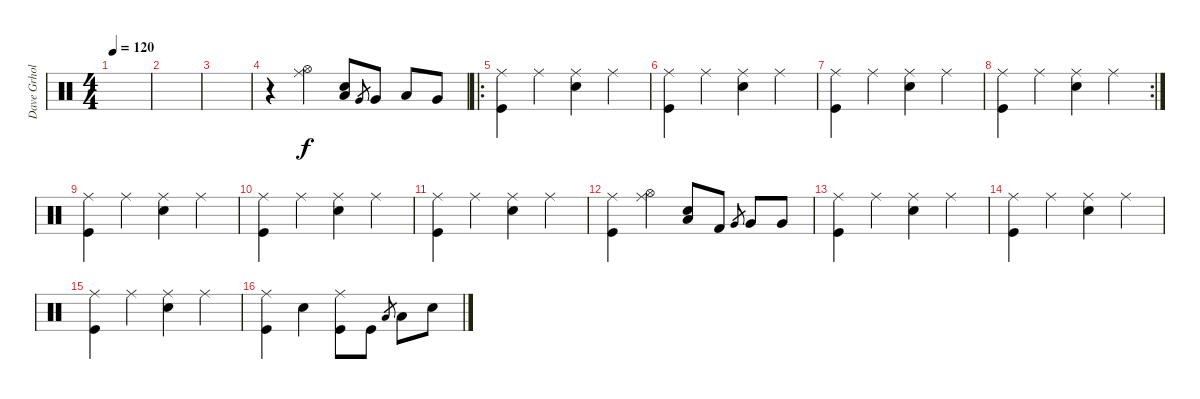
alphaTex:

\track ("Dave Grhol" "Dave Grhol") {instrument percussion}
\staff {score}
\articulation defaults
\ts (4 4)
\tempo 120
\clef neutral
\ks c
|
|
|
r.4 ("Hi-Hat (open)" "Ride (middle)").4 ("Low Tom (hit)" "Snare (hit) 2").8 "Very Low Tom (hit)".8{gr} "Very Low Tom (hit)".8 "Low Tom (hit)".8 "Very Low Tom (hit)".8 |
\ro
("Ride (middle)" "Kick (hit)").4 "Ride (middle)".4 ("Ride (middle)" "Snare (hit) 2").4 "Ride (middle)".4 |
("Ride (middle)" "Kick (hit)").4 "Ride (middle)".4 ("Ride (middle)" "Snare (hit) 2").4 "Ride (middle)".4 |
("Ride (middle)" "Kick (hit)").4 "Ride (middle)".4 ("Ride (middle)" "Snare (hit) 2").4 "Ride (middle)".4 |
\rc 2
("Ride (middle)" "Kick (hit)").4 "Ride (middle)".4 ("Ride (middle)" "Snare (hit) 2").4 "Ride (middle)".4 |
("Ride (middle)" "Kick (hit)").4 "Ride (middle)".4 ("Ride (middle)" "Snare (hit) 2").4 "Ride (middle)".4 |
("Ride (middle)" "Kick (hit)").4 "Ride (middle)".4 ("Ride (middle)" "Snare (hit) 2").4 "Ride (middle)".4 |
("Ride (middle)" "Kick (hit)").4 "Ride (middle)".4 ("Ride (middle)" "Snare (hit) 2").4 "Ride (middle)".4 |
("Ride (middle)" "Kick (hit)").4 ("Ride (middle)" "Hi-Hat (open)").4 ("Low Floor Tom (hit)" "Snare (hit) 2").8 "Kick (hit) 2".8 "Very Low Tom (hit)".8{gr} "Very Low Tom (hit)".8 "Very Low Tom (hit)".8 |
("Ride (middle)" "Kick (hit)").4 "Ride (middle)".4 ("Ride (middle)" "Snare (hit) 2").4 "Ride (middle)".4 |
("Ride (middle)" "Kick (hit)").4 "Ride (middle)".4 ("Ride (middle)" "Snare (hit) 2").4 "Ride (middle)".4 |
("Ride (middle)" "Kick (hit)").4 "Ride (middle)".4 ("Ride (middle)" "Snare (hit) 2").4 "Ride (middle)".4 |
("Ride (middle)" "Kick (hit)").4 "Electric Snare (hit)".4 ("Ride (middle)" "Kick (hit)").8 "Kick (hit)".8 "Low Tom (hit)".8{gr} "Low Tom (hit)".8 "Electric Snare (hit)".8
